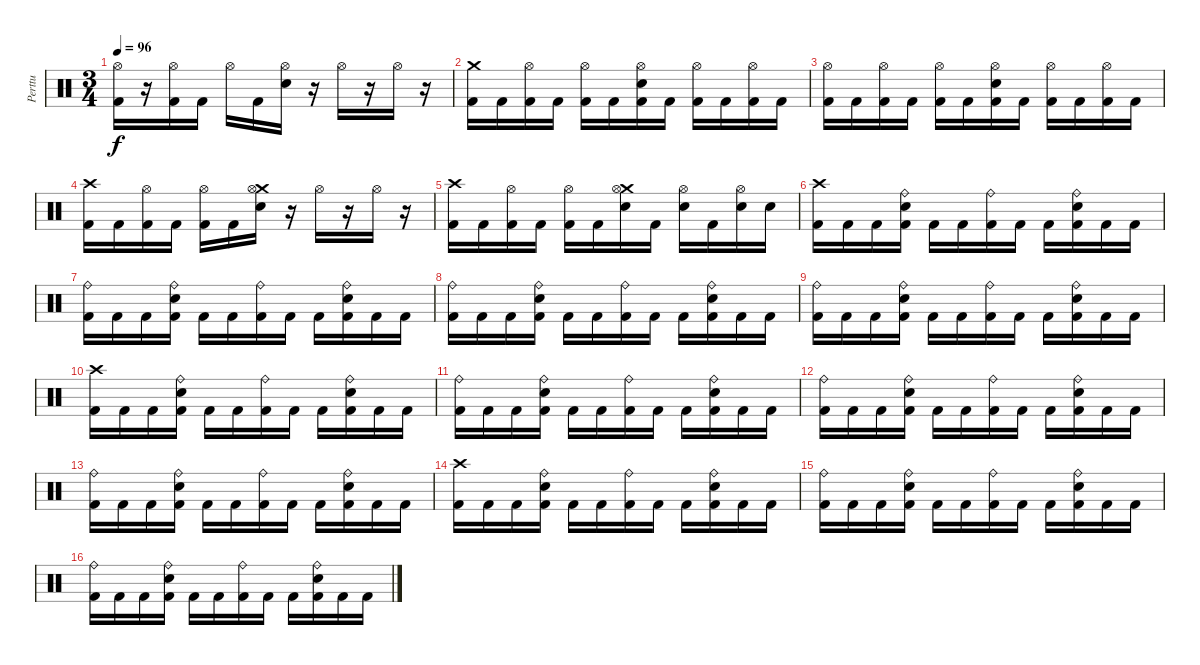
\track ("Perttu" "Perttu") {instrument percussion}
\staff {score}
\articulation defaults
\ts (3 4)
\tempo 96
\clef neutral
\ks c
("Hi-Hat (open)" "Kick (hit) 2").16{dy f} r.16 ("Hi-Hat (open)" "Kick (hit) 2").16 "Kick (hit) 2".16 "Hi-Hat (open)".16 "Kick (hit) 2".16 ("Hi-Hat (open)" "Electric Snare (hit)").16 r.16 "Hi-Hat (open)".16 r.16 "Hi-Hat (open)".16 r.16 |
("Crash medium (hit)" "Kick (hit) 2").16 "Kick (hit) 2".16 ("Hi-Hat (open)" "Kick (hit) 2").16 "Kick (hit) 2".16 ("Hi-Hat (open)" "Kick (hit) 2").16 "Kick (hit) 2".16 ("Hi-Hat (open)" "Electric Snare (hit)" "Kick (hit) 2").16 "Kick (hit) 2".16 ("Hi-Hat (open)" "Kick (hit) 2").16 "Kick (hit) 2".16 ("Hi-Hat (open)" "Kick (hit) 2").16 "Kick (hit) 2".16 |
("Hi-Hat (open)" "Kick (hit) 2").16 "Kick (hit) 2".16 ("Hi-Hat (open)" "Kick (hit) 2").16 "Kick (hit) 2".16 ("Hi-Hat (open)" "Kick (hit) 2").16 "Kick (hit) 2".16 ("Hi-Hat (open)" "Electric Snare (hit)" "Kick (hit) 2").16 "Kick (hit) 2".16 ("Hi-Hat (open)" "Kick (hit) 2").16 "Kick (hit) 2".16 ("Hi-Hat (open)" "Kick (hit) 2").16 "Kick (hit) 2".16 |
("Crash high (hit)" "Kick (hit) 2").16 "Kick (hit) 2".16 ("Hi-Hat (open)" "Kick (hit) 2").16 "Kick (hit) 2".16 ("Hi-Hat (open)" "Kick (hit) 2").16 "Kick (hit) 2".16 ("Crash medium (hit)" "Hi-Hat (open)" "Electric Snare (hit)").16 r.16 "Hi-Hat (open)".16 r.16 "Hi-Hat (open)".16 r.16 |
("Crash high (hit)" "Kick (hit) 2").16 "Kick (hit) 2".16 ("Hi-Hat (open)" "Kick (hit) 2").16 "Kick (hit) 2".16 ("Hi-Hat (open)" "Kick (hit) 2").16 "Kick (hit) 2".16 ("Crash medium (hit)" "Hi-Hat (open)" "Electric Snare (hit)").16 "Kick (hit) 2".16 ("Hi-Hat (open)" "Electric Snare (hit)").16 "Kick (hit) 2".16 ("Hi-Hat (open)" "Electric Snare (hit)").16 "Electric Snare (hit)".16 |
("Crash high (hit)" "Kick (hit) 2").16 "Kick (hit) 2".16 "Kick (hit) 2".16 ("Ride (bell)" "Electric Snare (hit)" "Kick (hit) 2").16 "Kick (hit) 2".16 "Kick (hit) 2".16 ("Ride (bell)" "Kick (hit) 2").16 "Kick (hit) 2".16 "Kick (hit) 2".16 ("Ride (bell)" "Electric Snare (hit)" "Kick (hit) 2").16 "Kick (hit) 2".16 "Kick (hit) 2".16 |
("Ride (bell)" "Kick (hit) 2").16 "Kick (hit) 2".16 "Kick (hit) 2".16 ("Ride (bell)" "Electric Snare (hit)" "Kick (hit) 2").16 "Kick (hit) 2".16 "Kick (hit) 2".16 ("Ride (bell)" "Kick (hit) 2").16 "Kick (hit) 2".16 "Kick (hit) 2".16 ("Ride (bell)" "Electric Snare (hit)" "Kick (hit) 2").16 "Kick (hit) 2".16 "Kick (hit) 2".16 |
("Ride (bell)" "Kick (hit) 2").16 "Kick (hit) 2".16 "Kick (hit) 2".16 ("Ride (bell)" "Electric Snare (hit)" "Kick (hit) 2").16 "Kick (hit) 2".16 "Kick (hit) 2".16 ("Ride (bell)" "Kick (hit) 2").16 "Kick (hit) 2".16 "Kick (hit) 2".16 ("Ride (bell)" "Electric Snare (hit)" "Kick (hit) 2").16 "Kick (hit) 2".16 "Kick (hit) 2".16 |
("Ride (bell)" "Kick (hit) 2").16 "Kick (hit) 2".16 "Kick (hit) 2".16 ("Ride (bell)" "Electric Snare (hit)" "Kick (hit) 2").16 "Kick (hit) 2".16 "Kick (hit) 2".16 ("Ride (bell)" "Kick (hit) 2").16 "Kick (hit) 2".16 "Kick (hit) 2".16 ("Ride (bell)" "Electric Snare (hit)" "Kick (hit) 2").16 "Kick (hit) 2".16 "Kick (hit) 2".16 |
("Crash high (hit)" "Kick (hit) 2").16 "Kick (hit) 2".16 "Kick (hit) 2".16 ("Ride (bell)" "Electric Snare (hit)" "Kick (hit) 2").16 "Kick (hit) 2".16 "Kick (hit) 2".16 ("Ride (bell)" "Kick (hit) 2").16 "Kick (hit) 2".16 "Kick (hit) 2".16 ("Ride (bell)" "Electric Snare (hit)" "Kick (hit) 2").16 "Kick (hit) 2".16 "Kick (hit) 2".16 |
("Ride (bell)" "Kick (hit) 2").16 "Kick (hit) 2".16 "Kick (hit) 2".16 ("Ride (bell)" "Electric Snare (hit)" "Kick (hit) 2").16 "Kick (hit) 2".16 "Kick (hit) 2".16 ("Ride (bell)" "Kick (hit) 2").16 "Kick (hit) 2".16 "Kick (hit) 2".16 ("Ride (bell)" "Electric Snare (hit)" "Kick (hit) 2").16 "Kick (hit) 2".16 "Kick (hit) 2".16 |
("Ride (bell)" "Kick (hit) 2").16 "Kick (hit) 2".16 "Kick (hit) 2".16 ("Ride (bell)" "Electric Snare (hit)" "Kick (hit) 2").16 "Kick (hit) 2".16 "Kick (hit) 2".16 ("Ride (bell)" "Kick (hit) 2").16 "Kick (hit) 2".16 "Kick (hit) 2".16 ("Ride (bell)" "Electric Snare (hit)" "Kick (hit) 2").16 "Kick (hit) 2".16 "Kick (hit) 2".16 |
("Ride (bell)" "Kick (hit) 2").16 "Kick (hit) 2".16 "Kick (hit) 2".16 ("Ride (bell)" "Electric Snare (hit)" "Kick (hit) 2").16 "Kick (hit) 2".16 "Kick (hit) 2".16 ("Ride (bell)" "Kick (hit) 2").16 "Kick (hit) 2".16 "Kick (hit) 2".16 ("Ride (bell)" "Electric Snare (hit)" "Kick (hit) 2").16 "Kick (hit) 2".16 "Kick (hit) 2".16 |
("Crash high (hit)" "Kick (hit) 2").16 "Kick (hit) 2".16 "Kick (hit) 2".16 ("Ride (bell)" "Electric Snare (hit)" "Kick (hit) 2").16 "Kick (hit) 2".16 "Kick (hit) 2".16 ("Ride (bell)" "Kick (hit) 2").16 "Kick (hit) 2".16 "Kick (hit) 2".16 ("Ride (bell)" "Electric Snare (hit)" "Kick (hit) 2").16 "Kick (hit) 2".16 "Kick (hit) 2".16 |
("Ride (bell)" "Kick (hit) 2").16 "Kick (hit) 2".16 "Kick (hit) 2".16 ("Ride (bell)" "Electric Snare (hit)" "Kick (hit) 2").16 "Kick (hit) 2".16 "Kick (hit) 2".16 ("Ride (bell)" "Kick (hit) 2").16 "Kick (hit) 2".16 "Kick (hit) 2".16 ("Ride (bell)" "Electric Snare (hit)" "Kick (hit) 2").16 "Kick (hit) 2".16 "Kick (hit) 2".16 |
("Ride (bell)" "Kick (hit) 2").16 "Kick (hit) 2".16 "Kick (hit) 2".16 ("Ride (bell)" "Electric Snare (hit)" "Kick (hit) 2").16 "Kick (hit) 2".16 "Kick (hit) 2".16 ("Ride (bell)" "Kick (hit) 2").16 "Kick (hit) 2".16 "Kick (hit) 2".16 ("Ride (bell)" "Electric Snare (hit)" "Kick (hit) 2").16 "Kick (hit) 2".16 "Kick (hit) 2".16
